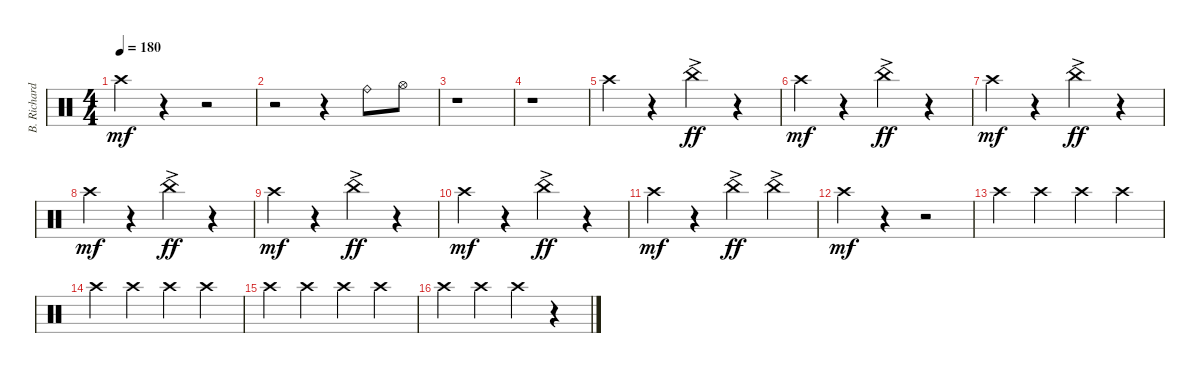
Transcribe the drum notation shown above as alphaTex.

\track ("B. Richardson Drums" "B. Richard") {instrument percussion}
\staff {score}
\articulation defaults
\ts (4 4)
\tempo 180
\clef neutral
\ks c "Crash high (hit)".4{dy mf}
r.4 r.2 |
r.2 r.4 "Ride (bell)".8 "Hi-Hat (open)".8 |
r.1 |
r.1 |
"Crash high (hit)".4 r.4 "China (hit)"{ac}.4{dy ff} r.4 |
"Crash high (hit)".4{dy mf} r.4 "China (hit)"{ac}.4{dy ff} r.4 |
"Crash high (hit)".4{dy mf} r.4 "China (hit)"{ac}.4{dy ff} r.4 |
"Crash high (hit)".4{dy mf} r.4 "China (hit)"{ac}.4{dy ff} r.4 |
"Crash high (hit)".4{dy mf} r.4 "China (hit)"{ac}.4{dy ff} r.4 |
"Crash high (hit)".4{dy mf} r.4 "China (hit)"{ac}.4{dy ff} r.4 |
"Crash high (hit)".4{dy mf} r.4 "China (hit)"{ac}.4{dy ff} "China (hit)"{ac}.4 |
"Crash high (hit)".4{dy mf} r.4 r.2 |
"Crash high (hit)".4 "Crash high (hit)".4 "Crash high (hit)".4 "Crash high (hit)".4 |
"Crash high (hit)".4 "Crash high (hit)".4 "Crash high (hit)".4 "Crash high (hit)".4 |
"Crash high (hit)".4 "Crash high (hit)".4 "Crash high (hit)".4 "Crash high (hit)".4 |
"Crash high (hit)".4 "Crash high (hit)".4 "Crash high (hit)".4 r.4
